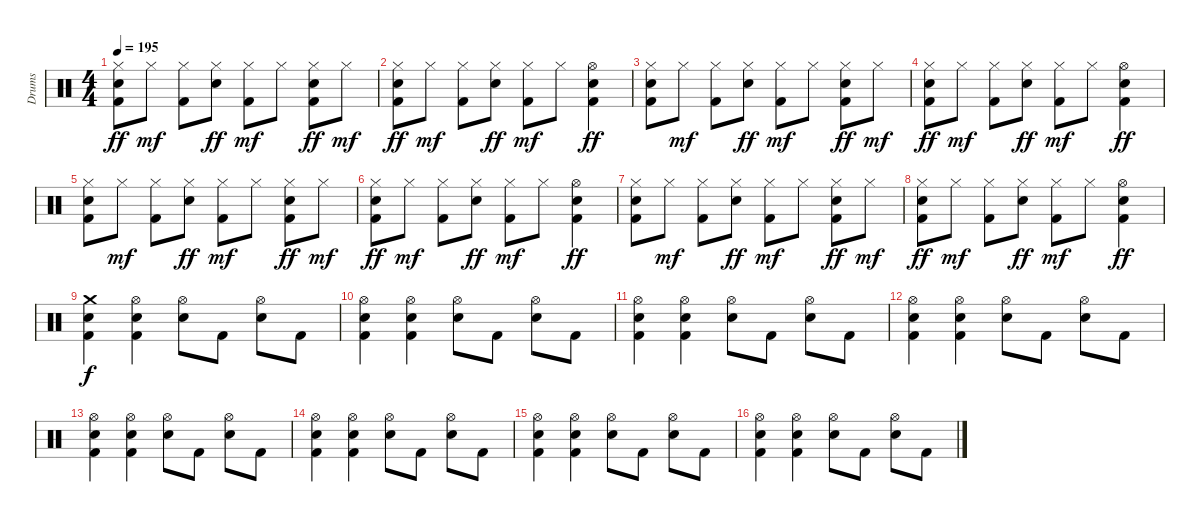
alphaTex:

\track ("Drums" "Drums") {instrument percussion}
\staff {score}
\articulation defaults
\ts (4 4)
\tempo 195
\clef neutral
\ks c
("Hi-Hat (closed)" "Electric Snare (hit)" "Kick (hit) 2").8{dy ff} "Hi-Hat (closed)".8{dy mf} ("Hi-Hat (closed)" "Kick (hit) 2").8 ("Hi-Hat (closed)" "Electric Snare (hit)").8{dy ff} ("Hi-Hat (closed)" "Kick (hit) 2").8{dy mf} "Hi-Hat (closed)".8 ("Hi-Hat (closed)" "Electric Snare (hit)" "Kick (hit) 2").8{dy ff} "Hi-Hat (closed)".8{dy mf} |
("Hi-Hat (closed)" "Electric Snare (hit)" "Kick (hit) 2").8{dy ff} "Hi-Hat (closed)".8{dy mf} ("Hi-Hat (closed)" "Kick (hit) 2").8 ("Hi-Hat (closed)" "Electric Snare (hit)").8{dy ff} ("Hi-Hat (closed)" "Kick (hit) 2").8{dy mf} "Hi-Hat (closed)".8 ("Hi-Hat (open)" "Electric Snare (hit)" "Kick (hit) 2").4{dy ff} |
("Hi-Hat (closed)" "Electric Snare (hit)" "Kick (hit) 2").8 "Hi-Hat (closed)".8{dy mf} ("Hi-Hat (closed)" "Kick (hit) 2").8 ("Hi-Hat (closed)" "Electric Snare (hit)").8{dy ff} ("Hi-Hat (closed)" "Kick (hit) 2").8{dy mf} "Hi-Hat (closed)".8 ("Hi-Hat (closed)" "Electric Snare (hit)" "Kick (hit) 2").8{dy ff} "Hi-Hat (closed)".8{dy mf} |
("Hi-Hat (closed)" "Electric Snare (hit)" "Kick (hit) 2").8{dy ff} "Hi-Hat (closed)".8{dy mf} ("Hi-Hat (closed)" "Kick (hit) 2").8 ("Hi-Hat (closed)" "Electric Snare (hit)").8{dy ff} ("Hi-Hat (closed)" "Kick (hit) 2").8{dy mf} "Hi-Hat (closed)".8 ("Hi-Hat (open)" "Electric Snare (hit)" "Kick (hit) 2").4{dy ff} |
("Hi-Hat (closed)" "Electric Snare (hit)" "Kick (hit) 2").8 "Hi-Hat (closed)".8{dy mf} ("Hi-Hat (closed)" "Kick (hit) 2").8 ("Hi-Hat (closed)" "Electric Snare (hit)").8{dy ff} ("Hi-Hat (closed)" "Kick (hit) 2").8{dy mf} "Hi-Hat (closed)".8 ("Hi-Hat (closed)" "Electric Snare (hit)" "Kick (hit) 2").8{dy ff} "Hi-Hat (closed)".8{dy mf} |
("Hi-Hat (closed)" "Electric Snare (hit)" "Kick (hit) 2").8{dy ff} "Hi-Hat (closed)".8{dy mf} ("Hi-Hat (closed)" "Kick (hit) 2").8 ("Hi-Hat (closed)" "Electric Snare (hit)").8{dy ff} ("Hi-Hat (closed)" "Kick (hit) 2").8{dy mf} "Hi-Hat (closed)".8 ("Hi-Hat (open)" "Electric Snare (hit)" "Kick (hit) 2").4{dy ff} |
("Hi-Hat (closed)" "Electric Snare (hit)" "Kick (hit) 2").8 "Hi-Hat (closed)".8{dy mf} ("Hi-Hat (closed)" "Kick (hit) 2").8 ("Hi-Hat (closed)" "Electric Snare (hit)").8{dy ff} ("Hi-Hat (closed)" "Kick (hit) 2").8{dy mf} "Hi-Hat (closed)".8 ("Hi-Hat (closed)" "Electric Snare (hit)" "Kick (hit) 2").8{dy ff} "Hi-Hat (closed)".8{dy mf} |
("Hi-Hat (closed)" "Electric Snare (hit)" "Kick (hit) 2").8{dy ff} "Hi-Hat (closed)".8{dy mf} ("Hi-Hat (closed)" "Kick (hit) 2").8 ("Hi-Hat (closed)" "Electric Snare (hit)").8{dy ff} ("Hi-Hat (closed)" "Kick (hit) 2").8{dy mf} "Hi-Hat (closed)".8 ("Hi-Hat (open)" "Electric Snare (hit)" "Kick (hit) 2").4{dy ff} |
("Crash medium (hit)" "Electric Snare (hit)" "Kick (hit) 2").4{dy f} ("Hi-Hat (open)" "Electric Snare (hit)" "Kick (hit) 2").4 ("Hi-Hat (open)" "Electric Snare (hit)").8 "Kick (hit) 2".8 ("Hi-Hat (open)" "Electric Snare (hit)").8 "Kick (hit) 2".8 |
("Hi-Hat (open)" "Electric Snare (hit)" "Kick (hit) 2").4 ("Hi-Hat (open)" "Electric Snare (hit)" "Kick (hit) 2").4 ("Hi-Hat (open)" "Electric Snare (hit)").8 "Kick (hit) 2".8 ("Hi-Hat (open)" "Electric Snare (hit)").8 "Kick (hit) 2".8 |
("Hi-Hat (open)" "Electric Snare (hit)" "Kick (hit) 2").4 ("Hi-Hat (open)" "Electric Snare (hit)" "Kick (hit) 2").4 ("Hi-Hat (open)" "Electric Snare (hit)").8 "Kick (hit) 2".8 ("Hi-Hat (open)" "Electric Snare (hit)").8 "Kick (hit) 2".8 |
("Hi-Hat (open)" "Electric Snare (hit)" "Kick (hit) 2").4 ("Hi-Hat (open)" "Electric Snare (hit)" "Kick (hit) 2").4 ("Hi-Hat (open)" "Electric Snare (hit)").8 "Kick (hit) 2".8 ("Hi-Hat (open)" "Electric Snare (hit)").8 "Kick (hit) 2".8 |
("Hi-Hat (open)" "Electric Snare (hit)" "Kick (hit) 2").4 ("Hi-Hat (open)" "Electric Snare (hit)" "Kick (hit) 2").4 ("Hi-Hat (open)" "Electric Snare (hit)").8 "Kick (hit) 2".8 ("Hi-Hat (open)" "Electric Snare (hit)").8 "Kick (hit) 2".8 |
("Hi-Hat (open)" "Electric Snare (hit)" "Kick (hit) 2").4 ("Hi-Hat (open)" "Electric Snare (hit)" "Kick (hit) 2").4 ("Hi-Hat (open)" "Electric Snare (hit)").8 "Kick (hit) 2".8 ("Hi-Hat (open)" "Electric Snare (hit)").8 "Kick (hit) 2".8 |
("Hi-Hat (open)" "Electric Snare (hit)" "Kick (hit) 2").4 ("Hi-Hat (open)" "Electric Snare (hit)" "Kick (hit) 2").4 ("Hi-Hat (open)" "Electric Snare (hit)").8 "Kick (hit) 2".8 ("Hi-Hat (open)" "Electric Snare (hit)").8 "Kick (hit) 2".8 |
("Hi-Hat (open)" "Electric Snare (hit)" "Kick (hit) 2").4 ("Hi-Hat (open)" "Electric Snare (hit)" "Kick (hit) 2").4 ("Hi-Hat (open)" "Electric Snare (hit)").8 "Kick (hit) 2".8 ("Hi-Hat (open)" "Electric Snare (hit)").8 "Kick (hit) 2".8
